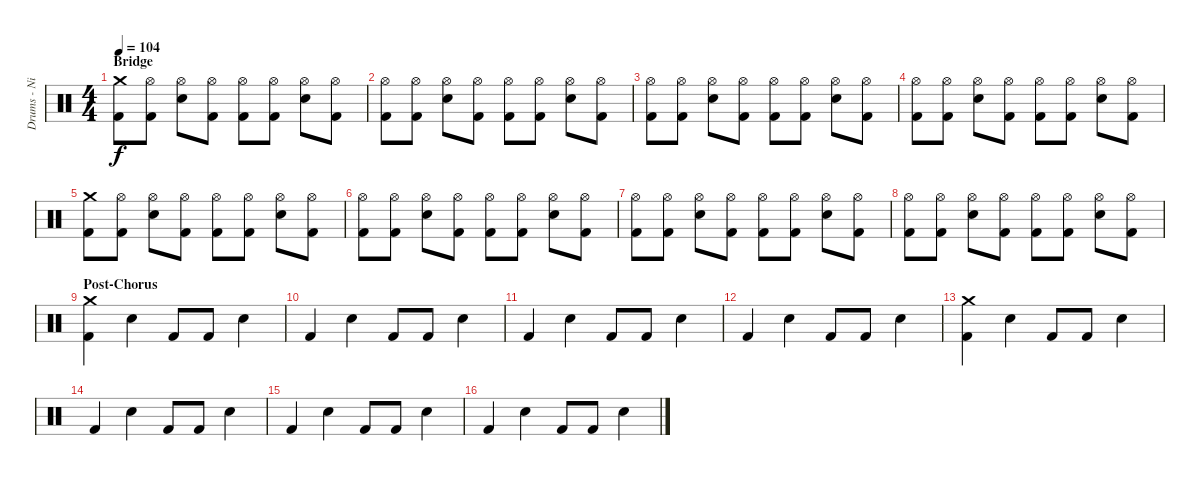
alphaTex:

\track ("Drums - Nick Jago" "Drums - Ni") {instrument percussion}
\staff {score}
\articulation defaults
\ts (4 4)
\section ("" "Bridge")
\tempo 104
\clef neutral
\ks c
("Crash medium (hit)" "Kick (hit) 2").8{dy f} ("Hi-Hat (open)" "Kick (hit) 2").8 ("Hi-Hat (open)" "Electric Snare (hit)").8 ("Hi-Hat (open)" "Kick (hit) 2").8 ("Hi-Hat (open)" "Kick (hit) 2").8 ("Hi-Hat (open)" "Kick (hit) 2").8 ("Hi-Hat (open)" "Electric Snare (hit)").8 ("Hi-Hat (open)" "Kick (hit) 2").8 |
("Hi-Hat (open)" "Kick (hit) 2").8 ("Hi-Hat (open)" "Kick (hit) 2").8 ("Hi-Hat (open)" "Electric Snare (hit)").8 ("Hi-Hat (open)" "Kick (hit) 2").8 ("Hi-Hat (open)" "Kick (hit) 2").8 ("Hi-Hat (open)" "Kick (hit) 2").8 ("Hi-Hat (open)" "Electric Snare (hit)").8 ("Hi-Hat (open)" "Kick (hit) 2").8 |
("Hi-Hat (open)" "Kick (hit) 2").8 ("Hi-Hat (open)" "Kick (hit) 2").8 ("Hi-Hat (open)" "Electric Snare (hit)").8 ("Hi-Hat (open)" "Kick (hit) 2").8 ("Hi-Hat (open)" "Kick (hit) 2").8 ("Hi-Hat (open)" "Kick (hit) 2").8 ("Hi-Hat (open)" "Electric Snare (hit)").8 ("Hi-Hat (open)" "Kick (hit) 2").8 |
("Hi-Hat (open)" "Kick (hit) 2").8 ("Hi-Hat (open)" "Kick (hit) 2").8 ("Hi-Hat (open)" "Electric Snare (hit)").8 ("Hi-Hat (open)" "Kick (hit) 2").8 ("Hi-Hat (open)" "Kick (hit) 2").8 ("Hi-Hat (open)" "Kick (hit) 2").8 ("Hi-Hat (open)" "Electric Snare (hit)").8 ("Hi-Hat (open)" "Kick (hit) 2").8 |
("Crash medium (hit)" "Kick (hit) 2").8 ("Hi-Hat (open)" "Kick (hit) 2").8 ("Hi-Hat (open)" "Electric Snare (hit)").8 ("Hi-Hat (open)" "Kick (hit) 2").8 ("Hi-Hat (open)" "Kick (hit) 2").8 ("Hi-Hat (open)" "Kick (hit) 2").8 ("Hi-Hat (open)" "Electric Snare (hit)").8 ("Hi-Hat (open)" "Kick (hit) 2").8 |
("Hi-Hat (open)" "Kick (hit) 2").8 ("Hi-Hat (open)" "Kick (hit) 2").8 ("Hi-Hat (open)" "Electric Snare (hit)").8 ("Hi-Hat (open)" "Kick (hit) 2").8 ("Hi-Hat (open)" "Kick (hit) 2").8 ("Hi-Hat (open)" "Kick (hit) 2").8 ("Hi-Hat (open)" "Electric Snare (hit)").8 ("Hi-Hat (open)" "Kick (hit) 2").8 |
("Hi-Hat (open)" "Kick (hit) 2").8 ("Hi-Hat (open)" "Kick (hit) 2").8 ("Hi-Hat (open)" "Electric Snare (hit)").8 ("Hi-Hat (open)" "Kick (hit) 2").8 ("Hi-Hat (open)" "Kick (hit) 2").8 ("Hi-Hat (open)" "Kick (hit) 2").8 ("Hi-Hat (open)" "Electric Snare (hit)").8 ("Hi-Hat (open)" "Kick (hit) 2").8 |
("Hi-Hat (open)" "Kick (hit) 2").8 ("Hi-Hat (open)" "Kick (hit) 2").8 ("Hi-Hat (open)" "Electric Snare (hit)").8 ("Hi-Hat (open)" "Kick (hit) 2").8 ("Hi-Hat (open)" "Kick (hit) 2").8 ("Hi-Hat (open)" "Kick (hit) 2").8 ("Hi-Hat (open)" "Electric Snare (hit)").8 ("Hi-Hat (open)" "Kick (hit) 2").8 |
\section ("" "Post-Chorus")
("Crash medium (hit)" "Kick (hit) 2").4 "Electric Snare (hit)".4 "Kick (hit) 2".8 "Kick (hit) 2".8 "Electric Snare (hit)".4 |
"Kick (hit) 2".4 "Electric Snare (hit)".4 "Kick (hit) 2".8 "Kick (hit) 2".8 "Electric Snare (hit)".4 |
"Kick (hit) 2".4 "Electric Snare (hit)".4 "Kick (hit) 2".8 "Kick (hit) 2".8 "Electric Snare (hit)".4 |
"Kick (hit) 2".4 "Electric Snare (hit)".4 "Kick (hit) 2".8 "Kick (hit) 2".8 "Electric Snare (hit)".4 |
("Crash medium (hit)" "Kick (hit) 2").4 "Electric Snare (hit)".4 "Kick (hit) 2".8 "Kick (hit) 2".8 "Electric Snare (hit)".4 |
"Kick (hit) 2".4 "Electric Snare (hit)".4 "Kick (hit) 2".8 "Kick (hit) 2".8 "Electric Snare (hit)".4 |
"Kick (hit) 2".4 "Electric Snare (hit)".4 "Kick (hit) 2".8 "Kick (hit) 2".8 "Electric Snare (hit)".4 |
"Kick (hit) 2".4 "Electric Snare (hit)".4 "Kick (hit) 2".8 "Kick (hit) 2".8 "Electric Snare (hit)".4
